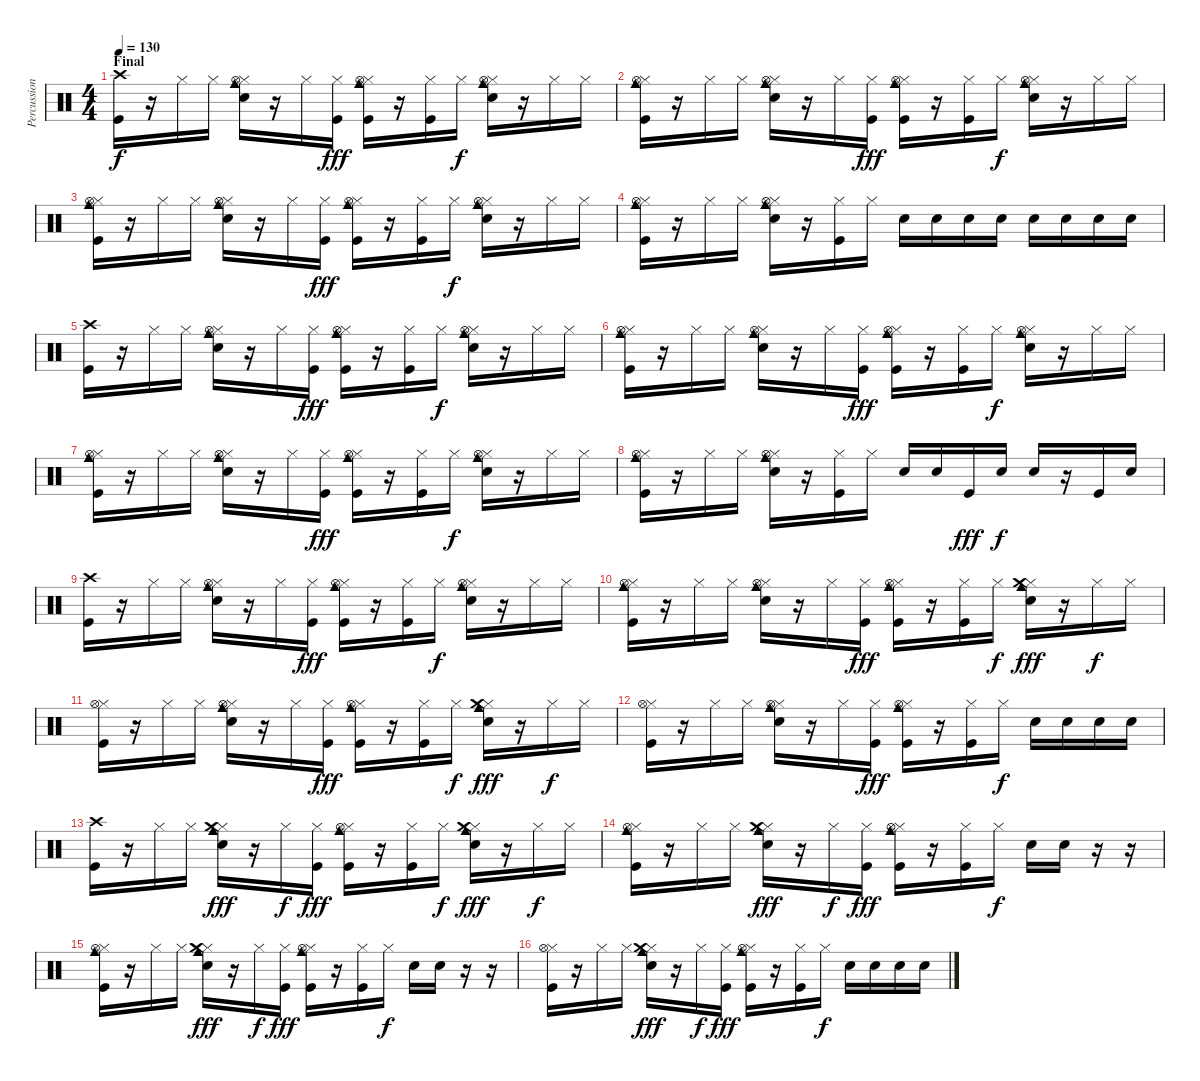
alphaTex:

\track ("Percussions" "Percussion") {instrument percussion}
\staff {score}
\articulation defaults
\ts (4 4)
\section ("" "Final")
\tempo 130
\clef neutral
\ks c
("Crash high (hit)" "Kick (hit)").16{dy f} r.16 "Hi-Hat (closed)".16 "Hi-Hat (closed)".16 ("Cowbell medium (hit)" "Hi-Hat (closed)" "Hi-Hat (open)" "Snare (hit) 2").16 r.16 "Hi-Hat (closed)".16 ("Hi-Hat (closed)" "Kick (hit)").16{dy fff} ("Cowbell medium (hit)" "Hi-Hat (closed)" "Hi-Hat (open)" "Kick (hit)").16 r.16 ("Hi-Hat (closed)" "Kick (hit)").16 "Hi-Hat (closed)".16{dy f} ("Cowbell medium (hit)" "Hi-Hat (closed)" "Hi-Hat (open)" "Snare (hit) 2").16 r.16 "Hi-Hat (closed)".16 "Hi-Hat (closed)".16 |
("Cowbell medium (hit)" "Hi-Hat (closed)" "Hi-Hat (open)" "Kick (hit)").16 r.16 "Hi-Hat (closed)".16 "Hi-Hat (closed)".16 ("Cowbell medium (hit)" "Hi-Hat (closed)" "Hi-Hat (open)" "Snare (hit) 2").16 r.16 "Hi-Hat (closed)".16 ("Hi-Hat (closed)" "Kick (hit)").16{dy fff} ("Cowbell medium (hit)" "Hi-Hat (closed)" "Hi-Hat (open)" "Kick (hit)").16 r.16 ("Hi-Hat (closed)" "Kick (hit)").16 "Hi-Hat (closed)".16{dy f} ("Cowbell medium (hit)" "Hi-Hat (closed)" "Hi-Hat (open)" "Snare (hit) 2").16 r.16 "Hi-Hat (closed)".16 "Hi-Hat (closed)".16 |
("Cowbell medium (hit)" "Hi-Hat (closed)" "Hi-Hat (open)" "Kick (hit)").16 r.16 "Hi-Hat (closed)".16 "Hi-Hat (closed)".16 ("Cowbell medium (hit)" "Hi-Hat (closed)" "Hi-Hat (open)" "Snare (hit) 2").16 r.16 "Hi-Hat (closed)".16 ("Hi-Hat (closed)" "Kick (hit)").16{dy fff} ("Cowbell medium (hit)" "Hi-Hat (closed)" "Hi-Hat (open)" "Kick (hit)").16 r.16 ("Hi-Hat (closed)" "Kick (hit)").16 "Hi-Hat (closed)".16{dy f} ("Cowbell medium (hit)" "Hi-Hat (closed)" "Hi-Hat (open)" "Snare (hit) 2").16 r.16 "Hi-Hat (closed)".16 "Hi-Hat (closed)".16 |
("Cowbell medium (hit)" "Hi-Hat (closed)" "Hi-Hat (open)" "Kick (hit)").16 r.16 "Hi-Hat (closed)".16 "Hi-Hat (closed)".16 ("Cowbell medium (hit)" "Hi-Hat (closed)" "Hi-Hat (open)" "Snare (hit) 2").16 r.16 ("Hi-Hat (closed)" "Kick (hit)").16 "Hi-Hat (closed)".16 "Snare (hit) 2".16 "Snare (hit) 2".16 "Snare (hit) 2".16 "Snare (hit) 2".16 "Snare (hit) 2".16 "Snare (hit) 2".16 "Snare (hit) 2".16 "Snare (hit) 2".16 |
("Crash high (hit)" "Kick (hit)").16 r.16 "Hi-Hat (closed)".16 "Hi-Hat (closed)".16 ("Cowbell medium (hit)" "Hi-Hat (closed)" "Hi-Hat (open)" "Snare (hit) 2").16 r.16 "Hi-Hat (closed)".16 ("Hi-Hat (closed)" "Kick (hit)").16{dy fff} ("Cowbell medium (hit)" "Hi-Hat (closed)" "Hi-Hat (open)" "Kick (hit)").16 r.16 ("Hi-Hat (closed)" "Kick (hit)").16 "Hi-Hat (closed)".16{dy f} ("Cowbell medium (hit)" "Hi-Hat (closed)" "Hi-Hat (open)" "Snare (hit) 2").16 r.16 "Hi-Hat (closed)".16 "Hi-Hat (closed)".16 |
("Cowbell medium (hit)" "Hi-Hat (closed)" "Hi-Hat (open)" "Kick (hit)").16 r.16 "Hi-Hat (closed)".16 "Hi-Hat (closed)".16 ("Cowbell medium (hit)" "Hi-Hat (closed)" "Hi-Hat (open)" "Snare (hit) 2").16 r.16 "Hi-Hat (closed)".16 ("Hi-Hat (closed)" "Kick (hit)").16{dy fff} ("Cowbell medium (hit)" "Hi-Hat (closed)" "Hi-Hat (open)" "Kick (hit)").16 r.16 ("Hi-Hat (closed)" "Kick (hit)").16 "Hi-Hat (closed)".16{dy f} ("Cowbell medium (hit)" "Hi-Hat (closed)" "Hi-Hat (open)" "Snare (hit) 2").16 r.16 "Hi-Hat (closed)".16 "Hi-Hat (closed)".16 |
("Cowbell medium (hit)" "Hi-Hat (closed)" "Hi-Hat (open)" "Kick (hit)").16 r.16 "Hi-Hat (closed)".16 "Hi-Hat (closed)".16 ("Cowbell medium (hit)" "Hi-Hat (closed)" "Hi-Hat (open)" "Snare (hit) 2").16 r.16 "Hi-Hat (closed)".16 ("Hi-Hat (closed)" "Kick (hit)").16{dy fff} ("Cowbell medium (hit)" "Hi-Hat (closed)" "Hi-Hat (open)" "Kick (hit)").16 r.16 ("Hi-Hat (closed)" "Kick (hit)").16 "Hi-Hat (closed)".16{dy f} ("Cowbell medium (hit)" "Hi-Hat (closed)" "Hi-Hat (open)" "Snare (hit) 2").16 r.16 "Hi-Hat (closed)".16 "Hi-Hat (closed)".16 |
("Cowbell medium (hit)" "Hi-Hat (closed)" "Hi-Hat (open)" "Kick (hit)").16 r.16 "Hi-Hat (closed)".16 "Hi-Hat (closed)".16 ("Cowbell medium (hit)" "Hi-Hat (closed)" "Hi-Hat (open)" "Snare (hit) 2").16 r.16 ("Hi-Hat (closed)" "Kick (hit)").16 "Hi-Hat (closed)".16 "Snare (hit) 2".16 "Snare (hit) 2".16 "Kick (hit)".16{dy fff} "Snare (hit) 2".16{dy f} "Snare (hit) 2".16 r.16 "Kick (hit)".16 "Snare (hit) 2".16 |
("Crash high (hit)" "Kick (hit)").16 r.16 "Hi-Hat (closed)".16 "Hi-Hat (closed)".16 ("Cowbell medium (hit)" "Hi-Hat (closed)" "Hi-Hat (open)" "Snare (hit) 2").16 r.16 "Hi-Hat (closed)".16 ("Hi-Hat (closed)" "Kick (hit)").16{dy fff} ("Cowbell medium (hit)" "Hi-Hat (closed)" "Hi-Hat (open)" "Kick (hit)").16 r.16 ("Hi-Hat (closed)" "Kick (hit)").16 "Hi-Hat (closed)".16{dy f} ("Cowbell medium (hit)" "Hi-Hat (closed)" "Hi-Hat (open)" "Snare (hit) 2").16 r.16 "Hi-Hat (closed)".16 "Hi-Hat (closed)".16 |
("Cowbell medium (hit)" "Hi-Hat (closed)" "Hi-Hat (open)" "Kick (hit)").16 r.16 "Hi-Hat (closed)".16 "Hi-Hat (closed)".16 ("Cowbell medium (hit)" "Hi-Hat (closed)" "Hi-Hat (open)" "Snare (hit) 2").16 r.16 "Hi-Hat (closed)".16 ("Hi-Hat (closed)" "Kick (hit)").16{dy fff} ("Cowbell medium (hit)" "Hi-Hat (closed)" "Hi-Hat (open)" "Kick (hit)").16 r.16 ("Hi-Hat (closed)" "Kick (hit)").16 "Hi-Hat (closed)".16{dy f} ("Cowbell medium (hit)" "Hi-Hat (closed)" "Crash medium (hit)" "Snare (hit) 2").16{dy fff} r.16 "Hi-Hat (closed)".16{dy f} "Hi-Hat (closed)".16 |
("Hi-Hat (closed)" "Hi-Hat (open)" "Kick (hit)").16 r.16 "Hi-Hat (closed)".16 "Hi-Hat (closed)".16 ("Cowbell medium (hit)" "Hi-Hat (closed)" "Hi-Hat (open)" "Snare (hit) 2").16 r.16 "Hi-Hat (closed)".16 ("Hi-Hat (closed)" "Kick (hit)").16{dy fff} ("Cowbell medium (hit)" "Hi-Hat (closed)" "Hi-Hat (open)" "Kick (hit)").16 r.16 ("Hi-Hat (closed)" "Kick (hit)").16 "Hi-Hat (closed)".16{dy f} ("Cowbell medium (hit)" "Hi-Hat (closed)" "Crash medium (hit)" "Snare (hit) 2").16{dy fff} r.16 "Hi-Hat (closed)".16{dy f} "Hi-Hat (closed)".16 |
("Hi-Hat (closed)" "Hi-Hat (open)" "Kick (hit)").16 r.16 "Hi-Hat (closed)".16 "Hi-Hat (closed)".16 ("Cowbell medium (hit)" "Hi-Hat (closed)" "Hi-Hat (open)" "Snare (hit) 2").16 r.16 "Hi-Hat (closed)".16 ("Hi-Hat (closed)" "Kick (hit)").16{dy fff} ("Cowbell medium (hit)" "Hi-Hat (closed)" "Hi-Hat (open)" "Kick (hit)").16 r.16 ("Hi-Hat (closed)" "Kick (hit)").16 "Hi-Hat (closed)".16{dy f} "Snare (hit) 2".16 "Snare (hit) 2".16 "Snare (hit) 2".16 "Snare (hit) 2".16 |
("Crash high (hit)" "Kick (hit)").16 r.16 "Hi-Hat (closed)".16 "Hi-Hat (closed)".16 ("Cowbell medium (hit)" "Hi-Hat (closed)" "Crash medium (hit)" "Snare (hit) 2").16{dy fff} r.16 "Hi-Hat (closed)".16{dy f} ("Hi-Hat (closed)" "Kick (hit)").16{dy fff} ("Cowbell medium (hit)" "Hi-Hat (closed)" "Hi-Hat (open)" "Kick (hit)").16 r.16 ("Hi-Hat (closed)" "Kick (hit)").16 "Hi-Hat (closed)".16{dy f} ("Cowbell medium (hit)" "Hi-Hat (closed)" "Crash medium (hit)" "Snare (hit) 2").16{dy fff} r.16 "Hi-Hat (closed)".16{dy f} "Hi-Hat (closed)".16 |
("Cowbell medium (hit)" "Hi-Hat (closed)" "Hi-Hat (open)" "Kick (hit)").16 r.16 "Hi-Hat (closed)".16 "Hi-Hat (closed)".16 ("Cowbell medium (hit)" "Hi-Hat (closed)" "Crash medium (hit)" "Snare (hit) 2").16{dy fff} r.16 "Hi-Hat (closed)".16{dy f} ("Hi-Hat (closed)" "Kick (hit)").16{dy fff} ("Cowbell medium (hit)" "Hi-Hat (closed)" "Hi-Hat (open)" "Kick (hit)").16 r.16 ("Hi-Hat (closed)" "Kick (hit)").16 "Hi-Hat (closed)".16{dy f} "Snare (hit) 2".16 "Snare (hit) 2".16 r.16 r.16 |
("Cowbell medium (hit)" "Hi-Hat (closed)" "Hi-Hat (open)" "Kick (hit)").16 r.16 "Hi-Hat (closed)".16 "Hi-Hat (closed)".16 ("Cowbell medium (hit)" "Hi-Hat (closed)" "Crash medium (hit)" "Snare (hit) 2").16{dy fff} r.16 "Hi-Hat (closed)".16{dy f} ("Hi-Hat (closed)" "Kick (hit)").16{dy fff} ("Cowbell medium (hit)" "Hi-Hat (closed)" "Hi-Hat (open)" "Kick (hit)").16 r.16 ("Hi-Hat (closed)" "Kick (hit)").16 "Hi-Hat (closed)".16{dy f} "Snare (hit) 2".16 "Snare (hit) 2".16 r.16 r.16 |
("Hi-Hat (closed)" "Hi-Hat (open)" "Kick (hit)").16 r.16 "Hi-Hat (closed)".16 "Hi-Hat (closed)".16 ("Cowbell medium (hit)" "Hi-Hat (closed)" "Crash medium (hit)" "Snare (hit) 2").16{dy fff} r.16 "Hi-Hat (closed)".16{dy f} ("Hi-Hat (closed)" "Kick (hit)").16{dy fff} ("Cowbell medium (hit)" "Hi-Hat (closed)" "Hi-Hat (open)" "Kick (hit)").16 r.16 ("Hi-Hat (closed)" "Kick (hit)").16 "Hi-Hat (closed)".16{dy f} "Snare (hit) 2".16 "Snare (hit) 2".16 "Snare (hit) 2".16 "Snare (hit) 2".16
